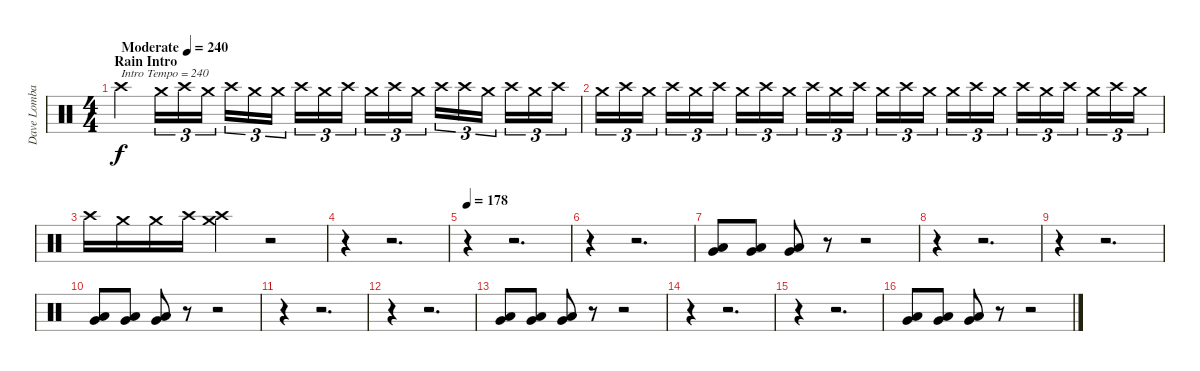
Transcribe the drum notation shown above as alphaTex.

\track ("Dave Lombardo" "Dave Lomba") {instrument percussion}
\staff {score}
\articulation defaults
\ts (4 4)
\section ("" "Rain Intro")
\tempo (240 "Moderate")
\clef neutral
\ks c "Crash high (hit)".4{txt "Intro Tempo = 240" dy f} "Crash medium (hit)".16{tu (3 2)} "Crash high (hit)".16{tu (3 2)} "Crash medium (hit)".16{tu (3 2)} "Crash high (hit)".16{tu (3 2)} "Crash medium (hit)".16{tu (3 2)} "Crash medium (hit)".16{tu (3 2)} "Crash high (hit)".16{tu (3 2)} "Crash medium (hit)".16{tu (3 2)} "Crash high (hit)".16{tu (3 2)} "Crash medium (hit)".16{tu (3 2)} "Crash high (hit)".16{tu (3 2)} "Crash medium (hit)".16{tu (3 2)} "Crash high (hit)".16{tu (3 2)} "Crash high (hit)".16{tu (3 2)} "Crash medium (hit)".16{tu (3 2)} "Crash high (hit)".16{tu (3 2)} "Crash medium (hit)".16{tu (3 2)} "Crash high (hit)".16{tu (3 2)}
|
"Crash medium (hit)".16{tu (3 2)} "Crash high (hit)".16{tu (3 2)} "Crash medium (hit)".16{tu (3 2)} "Crash high (hit)".16{tu (3 2)} "Crash medium (hit)".16{tu (3 2)} "Crash high (hit)".16{tu (3 2)} "Crash medium (hit)".16{tu (3 2)} "Crash high (hit)".16{tu (3 2)} "Crash medium (hit)".16{tu (3 2)} "Crash high (hit)".16{tu (3 2)} "Crash medium (hit)".16{tu (3 2)} "Crash high (hit)".16{tu (3 2)} "Crash medium (hit)".16{tu (3 2)} "Crash high (hit)".16{tu (3 2)} "Crash medium (hit)".16{tu (3 2)} "Crash medium (hit)".16{tu (3 2)} "Crash high (hit)".16{tu (3 2)} "Crash medium (hit)".16{tu (3 2)} "Crash high (hit)".16{tu (3 2)} "Crash medium (hit)".16{tu (3 2)} "Crash high (hit)".16{tu (3 2)} "Crash medium (hit)".16{tu (3 2)} "Crash high (hit)".16{tu (3 2)} "Crash medium (hit)".16{tu (3 2)} |
"Crash high (hit)".16 "Crash medium (hit)".16 "Crash medium (hit)".16 "Crash high (hit)".16 ("Crash high (hit)" "Crash medium (hit)").4 r.2 |
r.4 r.2{d} |
\tempo 178
r.4 r.2{d} |
r.4 r.2{d} |
("Low Floor Tom (hit)" "Very Low Tom (hit)").8 ("Low Floor Tom (hit)" "Very Low Tom (hit)").8 ("Low Floor Tom (hit)" "Very Low Tom (hit)").8 r.8 r.2 |
r.4 r.2{d} |
r.4 r.2{d} |
("Low Floor Tom (hit)" "Very Low Tom (hit)").8 ("Low Floor Tom (hit)" "Very Low Tom (hit)").8 ("Low Floor Tom (hit)" "Very Low Tom (hit)").8 r.8 r.2 |
r.4 r.2{d} |
r.4 r.2{d} |
("Low Floor Tom (hit)" "Very Low Tom (hit)").8 ("Low Floor Tom (hit)" "Very Low Tom (hit)").8 ("Low Floor Tom (hit)" "Very Low Tom (hit)").8 r.8 r.2 |
r.4 r.2{d} |
r.4 r.2{d} |
("Low Floor Tom (hit)" "Very Low Tom (hit)").8 ("Low Floor Tom (hit)" "Very Low Tom (hit)").8 ("Low Floor Tom (hit)" "Very Low Tom (hit)").8 r.8 r.2
